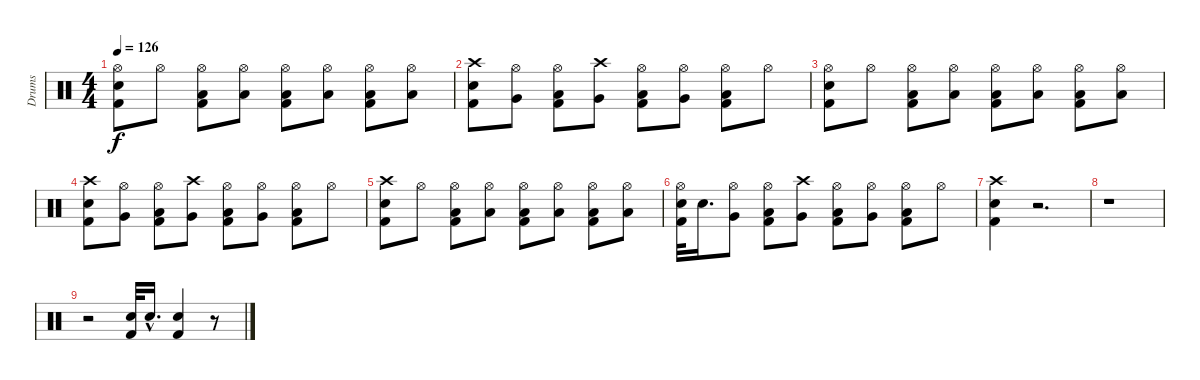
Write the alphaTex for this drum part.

\track ("Drums" "Drums") {instrument percussion}
\staff {score}
\articulation defaults
\ts (4 4)
\tempo 126
\clef neutral
\ks c
("Snare (hit) 2" "Kick (hit) 2" "Hi-Hat (open)").8{dy f} "Hi-Hat (open)".8 ("Low Floor Tom (hit)" "Kick (hit) 2" "Hi-Hat (open)").8 ("Low Floor Tom (hit)" "Hi-Hat (open)").8 ("Low Floor Tom (hit)" "Hi-Hat (open)" "Kick (hit) 2").8 ("Low Floor Tom (hit)" "Hi-Hat (open)").8 ("Low Floor Tom (hit)" "Kick (hit) 2" "Hi-Hat (open)").8 ("Low Floor Tom (hit)" "Hi-Hat (open)").8 |
("Snare (hit) 2" "Kick (hit) 2" "Crash high (hit)").8 ("Hi-Hat (open)" "Very Low Tom (hit)").8 ("Low Floor Tom (hit)" "Kick (hit) 2" "Hi-Hat (open)").8 ("Very Low Tom (hit)" "Crash high (hit)").8 ("Low Floor Tom (hit)" "Hi-Hat (open)" "Kick (hit) 2").8 ("Very Low Tom (hit)" "Hi-Hat (open)").8 ("Low Floor Tom (hit)" "Kick (hit) 2" "Hi-Hat (open)").8 "Hi-Hat (open)".8 |
("Snare (hit) 2" "Kick (hit) 2" "Hi-Hat (open)").8 "Hi-Hat (open)".8 ("Low Floor Tom (hit)" "Kick (hit) 2" "Hi-Hat (open)").8 ("Low Floor Tom (hit)" "Hi-Hat (open)").8 ("Low Floor Tom (hit)" "Hi-Hat (open)" "Kick (hit) 2").8 ("Low Floor Tom (hit)" "Hi-Hat (open)").8 ("Low Floor Tom (hit)" "Kick (hit) 2" "Hi-Hat (open)").8 ("Low Floor Tom (hit)" "Hi-Hat (open)").8 |
("Snare (hit) 2" "Kick (hit) 2" "Crash high (hit)").8 ("Hi-Hat (open)" "Very Low Tom (hit)").8 ("Low Floor Tom (hit)" "Kick (hit) 2" "Hi-Hat (open)").8 ("Very Low Tom (hit)" "Crash high (hit)").8 ("Low Floor Tom (hit)" "Hi-Hat (open)" "Kick (hit) 2").8 ("Very Low Tom (hit)" "Hi-Hat (open)").8 ("Low Floor Tom (hit)" "Kick (hit) 2" "Hi-Hat (open)").8 "Hi-Hat (open)".8 |
("Snare (hit) 2" "Kick (hit) 2" "Crash high (hit)").8 "Hi-Hat (open)".8 ("Low Floor Tom (hit)" "Kick (hit) 2" "Hi-Hat (open)").8 ("Low Floor Tom (hit)" "Hi-Hat (open)").8 ("Low Floor Tom (hit)" "Hi-Hat (open)" "Kick (hit) 2").8 ("Low Floor Tom (hit)" "Hi-Hat (open)").8 ("Low Floor Tom (hit)" "Kick (hit) 2" "Hi-Hat (open)").8 ("Low Floor Tom (hit)" "Hi-Hat (open)").8 |
("Snare (hit) 2" "Kick (hit) 2" "Hi-Hat (open)").32 "Snare (hit) 2".16{d} ("Hi-Hat (open)" "Very Low Tom (hit)").8 ("Low Floor Tom (hit)" "Kick (hit) 2" "Hi-Hat (open)").8 ("Very Low Tom (hit)" "Crash high (hit)").8 ("Low Floor Tom (hit)" "Hi-Hat (open)" "Kick (hit) 2").8 ("Very Low Tom (hit)" "Hi-Hat (open)").8 ("Low Floor Tom (hit)" "Kick (hit) 2" "Hi-Hat (open)").8 "Hi-Hat (open)".8 |
("Crash high (hit)" "Snare (hit) 2" "Kick (hit) 2").4 r.2{d} |
r.1 |
r.2 ("Snare (hit) 2" "Kick (hit) 2").32 "Snare (hit) 2"{hac}.16{d} ("Kick (hit) 2" "Snare (hit) 2").4 r.8
